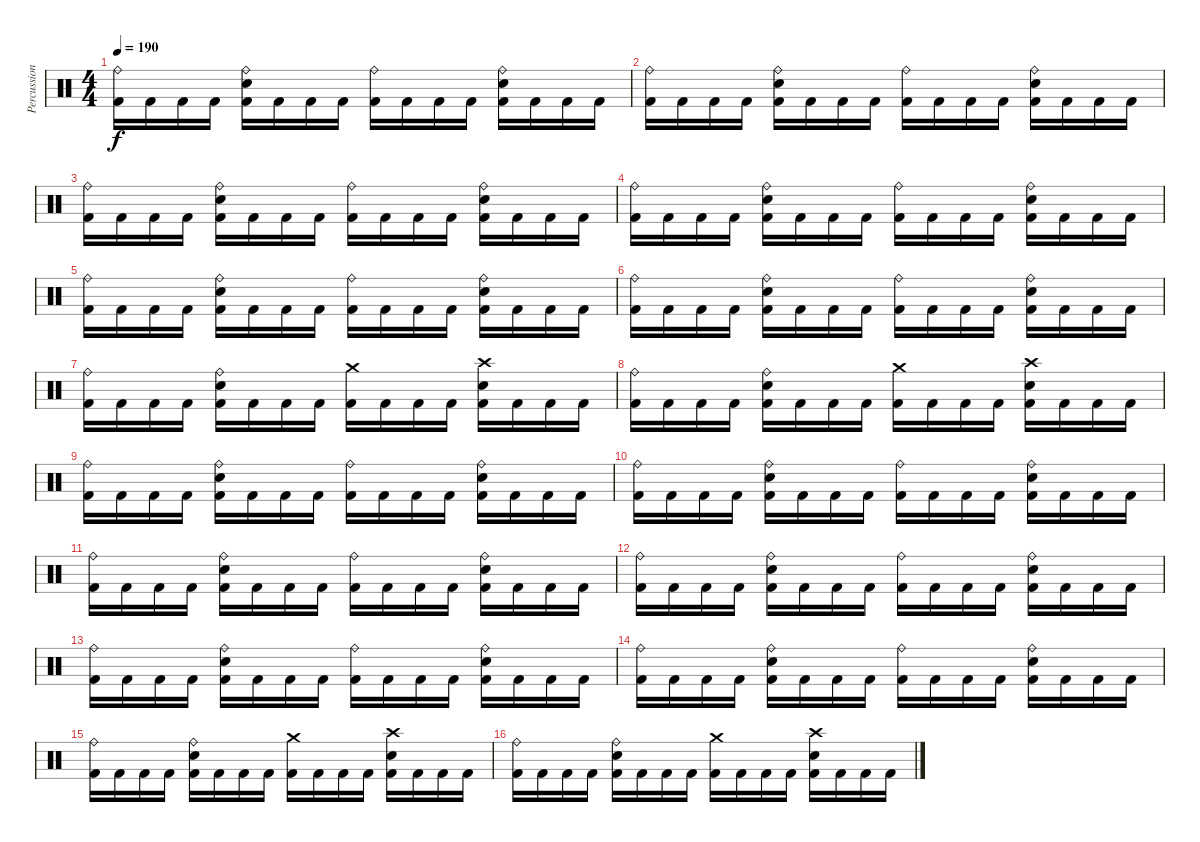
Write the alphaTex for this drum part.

\track ("Percussion" "Percussion") {instrument percussion}
\staff {score}
\articulation defaults
\ts (4 4)
\tempo 190
\clef neutral
\ks c
("Ride (bell)" "Kick (hit) 2").16{dy f} "Kick (hit) 2".16 "Kick (hit) 2".16 "Kick (hit) 2".16 ("Ride (bell)" "Electric Snare (hit)" "Kick (hit) 2").16 "Kick (hit) 2".16 "Kick (hit) 2".16 "Kick (hit) 2".16 ("Ride (bell)" "Kick (hit) 2").16 "Kick (hit) 2".16 "Kick (hit) 2".16 "Kick (hit) 2".16 ("Ride (bell)" "Electric Snare (hit)" "Kick (hit) 2").16 "Kick (hit) 2".16 "Kick (hit) 2".16 "Kick (hit) 2".16 |
("Ride (bell)" "Kick (hit) 2").16 "Kick (hit) 2".16 "Kick (hit) 2".16 "Kick (hit) 2".16 ("Ride (bell)" "Electric Snare (hit)" "Kick (hit) 2").16 "Kick (hit) 2".16 "Kick (hit) 2".16 "Kick (hit) 2".16 ("Ride (bell)" "Kick (hit) 2").16 "Kick (hit) 2".16 "Kick (hit) 2".16 "Kick (hit) 2".16 ("Ride (bell)" "Electric Snare (hit)" "Kick (hit) 2").16 "Kick (hit) 2".16 "Kick (hit) 2".16 "Kick (hit) 2".16 |
("Ride (bell)" "Kick (hit) 2").16 "Kick (hit) 2".16 "Kick (hit) 2".16 "Kick (hit) 2".16 ("Ride (bell)" "Electric Snare (hit)" "Kick (hit) 2").16 "Kick (hit) 2".16 "Kick (hit) 2".16 "Kick (hit) 2".16 ("Ride (bell)" "Kick (hit) 2").16 "Kick (hit) 2".16 "Kick (hit) 2".16 "Kick (hit) 2".16 ("Ride (bell)" "Electric Snare (hit)" "Kick (hit) 2").16 "Kick (hit) 2".16 "Kick (hit) 2".16 "Kick (hit) 2".16 |
("Ride (bell)" "Kick (hit) 2").16 "Kick (hit) 2".16 "Kick (hit) 2".16 "Kick (hit) 2".16 ("Ride (bell)" "Electric Snare (hit)" "Kick (hit) 2").16 "Kick (hit) 2".16 "Kick (hit) 2".16 "Kick (hit) 2".16 ("Ride (bell)" "Kick (hit) 2").16 "Kick (hit) 2".16 "Kick (hit) 2".16 "Kick (hit) 2".16 ("Ride (bell)" "Electric Snare (hit)" "Kick (hit) 2").16 "Kick (hit) 2".16 "Kick (hit) 2".16 "Kick (hit) 2".16 |
("Ride (bell)" "Kick (hit) 2").16 "Kick (hit) 2".16 "Kick (hit) 2".16 "Kick (hit) 2".16 ("Ride (bell)" "Electric Snare (hit)" "Kick (hit) 2").16 "Kick (hit) 2".16 "Kick (hit) 2".16 "Kick (hit) 2".16 ("Ride (bell)" "Kick (hit) 2").16 "Kick (hit) 2".16 "Kick (hit) 2".16 "Kick (hit) 2".16 ("Ride (bell)" "Electric Snare (hit)" "Kick (hit) 2").16 "Kick (hit) 2".16 "Kick (hit) 2".16 "Kick (hit) 2".16 |
("Ride (bell)" "Kick (hit) 2").16 "Kick (hit) 2".16 "Kick (hit) 2".16 "Kick (hit) 2".16 ("Ride (bell)" "Electric Snare (hit)" "Kick (hit) 2").16 "Kick (hit) 2".16 "Kick (hit) 2".16 "Kick (hit) 2".16 ("Ride (bell)" "Kick (hit) 2").16 "Kick (hit) 2".16 "Kick (hit) 2".16 "Kick (hit) 2".16 ("Ride (bell)" "Electric Snare (hit)" "Kick (hit) 2").16 "Kick (hit) 2".16 "Kick (hit) 2".16 "Kick (hit) 2".16 |
("Ride (bell)" "Kick (hit) 2").16 "Kick (hit) 2".16 "Kick (hit) 2".16 "Kick (hit) 2".16 ("Ride (bell)" "Electric Snare (hit)" "Kick (hit) 2").16 "Kick (hit) 2".16 "Kick (hit) 2".16 "Kick (hit) 2".16 ("Crash medium (hit)" "Kick (hit) 2").16 "Kick (hit) 2".16 "Kick (hit) 2".16 "Kick (hit) 2".16 ("Crash high (hit)" "Electric Snare (hit)" "Kick (hit) 2").16 "Kick (hit) 2".16 "Kick (hit) 2".16 "Kick (hit) 2".16 |
("Ride (bell)" "Kick (hit) 2").16 "Kick (hit) 2".16 "Kick (hit) 2".16 "Kick (hit) 2".16 ("Ride (bell)" "Electric Snare (hit)" "Kick (hit) 2").16 "Kick (hit) 2".16 "Kick (hit) 2".16 "Kick (hit) 2".16 ("Crash medium (hit)" "Kick (hit) 2").16 "Kick (hit) 2".16 "Kick (hit) 2".16 "Kick (hit) 2".16 ("Crash high (hit)" "Electric Snare (hit)" "Kick (hit) 2").16 "Kick (hit) 2".16 "Kick (hit) 2".16 "Kick (hit) 2".16 |
("Ride (bell)" "Kick (hit) 2").16 "Kick (hit) 2".16 "Kick (hit) 2".16 "Kick (hit) 2".16 ("Ride (bell)" "Electric Snare (hit)" "Kick (hit) 2").16 "Kick (hit) 2".16 "Kick (hit) 2".16 "Kick (hit) 2".16 ("Ride (bell)" "Kick (hit) 2").16 "Kick (hit) 2".16 "Kick (hit) 2".16 "Kick (hit) 2".16 ("Ride (bell)" "Electric Snare (hit)" "Kick (hit) 2").16 "Kick (hit) 2".16 "Kick (hit) 2".16 "Kick (hit) 2".16 |
("Ride (bell)" "Kick (hit) 2").16 "Kick (hit) 2".16 "Kick (hit) 2".16 "Kick (hit) 2".16 ("Ride (bell)" "Electric Snare (hit)" "Kick (hit) 2").16 "Kick (hit) 2".16 "Kick (hit) 2".16 "Kick (hit) 2".16 ("Ride (bell)" "Kick (hit) 2").16 "Kick (hit) 2".16 "Kick (hit) 2".16 "Kick (hit) 2".16 ("Ride (bell)" "Electric Snare (hit)" "Kick (hit) 2").16 "Kick (hit) 2".16 "Kick (hit) 2".16 "Kick (hit) 2".16 |
("Ride (bell)" "Kick (hit) 2").16 "Kick (hit) 2".16 "Kick (hit) 2".16 "Kick (hit) 2".16 ("Ride (bell)" "Electric Snare (hit)" "Kick (hit) 2").16 "Kick (hit) 2".16 "Kick (hit) 2".16 "Kick (hit) 2".16 ("Ride (bell)" "Kick (hit) 2").16 "Kick (hit) 2".16 "Kick (hit) 2".16 "Kick (hit) 2".16 ("Ride (bell)" "Electric Snare (hit)" "Kick (hit) 2").16 "Kick (hit) 2".16 "Kick (hit) 2".16 "Kick (hit) 2".16 |
("Ride (bell)" "Kick (hit) 2").16 "Kick (hit) 2".16 "Kick (hit) 2".16 "Kick (hit) 2".16 ("Ride (bell)" "Electric Snare (hit)" "Kick (hit) 2").16 "Kick (hit) 2".16 "Kick (hit) 2".16 "Kick (hit) 2".16 ("Ride (bell)" "Kick (hit) 2").16 "Kick (hit) 2".16 "Kick (hit) 2".16 "Kick (hit) 2".16 ("Ride (bell)" "Electric Snare (hit)" "Kick (hit) 2").16 "Kick (hit) 2".16 "Kick (hit) 2".16 "Kick (hit) 2".16 |
("Ride (bell)" "Kick (hit) 2").16 "Kick (hit) 2".16 "Kick (hit) 2".16 "Kick (hit) 2".16 ("Ride (bell)" "Electric Snare (hit)" "Kick (hit) 2").16 "Kick (hit) 2".16 "Kick (hit) 2".16 "Kick (hit) 2".16 ("Ride (bell)" "Kick (hit) 2").16 "Kick (hit) 2".16 "Kick (hit) 2".16 "Kick (hit) 2".16 ("Ride (bell)" "Electric Snare (hit)" "Kick (hit) 2").16 "Kick (hit) 2".16 "Kick (hit) 2".16 "Kick (hit) 2".16 |
("Ride (bell)" "Kick (hit) 2").16 "Kick (hit) 2".16 "Kick (hit) 2".16 "Kick (hit) 2".16 ("Ride (bell)" "Electric Snare (hit)" "Kick (hit) 2").16 "Kick (hit) 2".16 "Kick (hit) 2".16 "Kick (hit) 2".16 ("Ride (bell)" "Kick (hit) 2").16 "Kick (hit) 2".16 "Kick (hit) 2".16 "Kick (hit) 2".16 ("Ride (bell)" "Electric Snare (hit)" "Kick (hit) 2").16 "Kick (hit) 2".16 "Kick (hit) 2".16 "Kick (hit) 2".16 |
("Ride (bell)" "Kick (hit) 2").16 "Kick (hit) 2".16 "Kick (hit) 2".16 "Kick (hit) 2".16 ("Ride (bell)" "Electric Snare (hit)" "Kick (hit) 2").16 "Kick (hit) 2".16 "Kick (hit) 2".16 "Kick (hit) 2".16 ("Crash medium (hit)" "Kick (hit) 2").16 "Kick (hit) 2".16 "Kick (hit) 2".16 "Kick (hit) 2".16 ("Crash high (hit)" "Electric Snare (hit)" "Kick (hit) 2").16 "Kick (hit) 2".16 "Kick (hit) 2".16 "Kick (hit) 2".16 |
("Ride (bell)" "Kick (hit) 2").16 "Kick (hit) 2".16 "Kick (hit) 2".16 "Kick (hit) 2".16 ("Ride (bell)" "Electric Snare (hit)" "Kick (hit) 2").16 "Kick (hit) 2".16 "Kick (hit) 2".16 "Kick (hit) 2".16 ("Crash medium (hit)" "Kick (hit) 2").16 "Kick (hit) 2".16 "Kick (hit) 2".16 "Kick (hit) 2".16 ("Crash high (hit)" "Electric Snare (hit)" "Kick (hit) 2").16 "Kick (hit) 2".16 "Kick (hit) 2".16 "Kick (hit) 2".16
